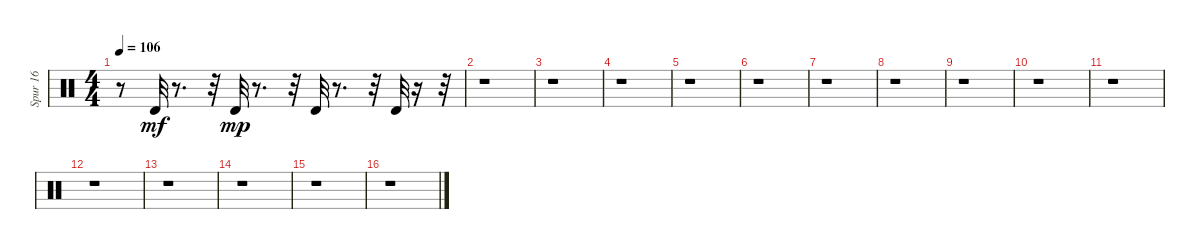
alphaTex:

\track ("Spur 16" "Spur 16") {instrument percussion}
\staff {score}
\articulation defaults
\ts (4 4)
\tempo 106
\clef neutral
\ks c
r.8{dy p} "Timbale high (hit)".32{dy mf} r.8{d} r.32 "Timbale high (hit)".32{dy mp} r.8{d} r.32 "Timbale high (hit)".32 r.8{d} r.32 "Timbale high (hit)".32 r.16 r.32 |
r.1 |
r.1 |
r.1 |
r.1 |
r.1 |
r.1 |
r.1 |
r.1 |
r.1 |
r.1 |
r.1 |
r.1 |
r.1 |
r.1 |
r.1
